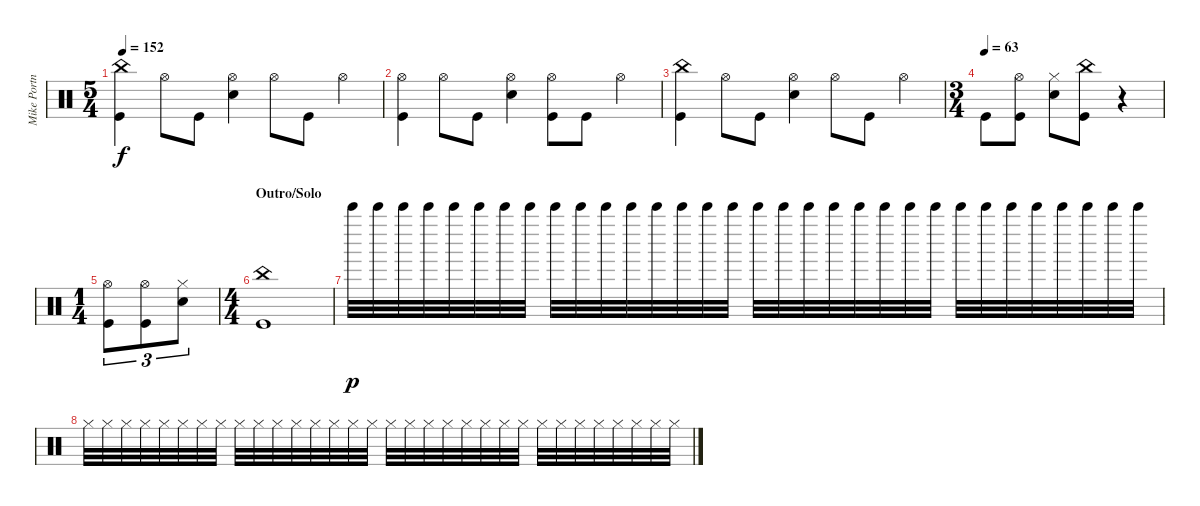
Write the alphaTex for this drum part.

\track ("Mike Portnoy (Drums)" "Mike Portn") {instrument percussion}
\staff {score}
\articulation defaults
\ts (5 4)
\tempo 152
\clef neutral
\ks c
("Kick (hit)" "China (hit)").4{dy f} "Hi-Hat (open)".8 "Kick (hit)".8 ("Snare (hit) 2" "Hi-Hat (open)").4 "Hi-Hat (open)".8 "Kick (hit)".8 "Hi-Hat (open)".4 |
("Kick (hit)" "Hi-Hat (open)").4 "Hi-Hat (open)".8 "Kick (hit)".8 ("Snare (hit) 2" "Hi-Hat (open)").4 ("Kick (hit)" "Hi-Hat (open)").8 "Kick (hit)".8 "Hi-Hat (open)".4 |
("Kick (hit)" "China (hit)").4 "Hi-Hat (open)".8 "Kick (hit)".8 ("Snare (hit) 2" "Hi-Hat (open)").4 "Hi-Hat (open)".8 "Kick (hit)".8 "Hi-Hat (open)".4 |
\ts (3 4)
\tempo (63)
"Kick (hit)".8 ("Kick (hit)" "Hi-Hat (open)").8 ("Snare (hit) 2" "Hi-Hat (closed)").8 ("Kick (hit)" "China (hit)").8 r.4 |
\ts (1 4)
("Kick (hit)" "Hi-Hat (open)").8{tu (3 2)} ("Kick (hit)" "Hi-Hat (open)").8{tu (3 2)} ("Snare (hit) 2" "Hi-Hat (closed)").8{tu (3 2)} |
\ts (4 4)
\section ("" "Outro/Solo")
("Kick (hit)" "China (hit)").1 |
"Bell Tree (hit)".32{dy p} "Bell Tree (hit)".32 "Bell Tree (hit)".32 "Bell Tree (hit)".32 "Bell Tree (hit)".32 "Bell Tree (hit)".32 "Bell Tree (hit)".32 "Bell Tree (hit)".32 "Bell Tree (hit)".32 "Bell Tree (hit)".32 "Bell Tree (hit)".32 "Bell Tree (hit)".32 "Bell Tree (hit)".32 "Bell Tree (hit)".32 "Bell Tree (hit)".32 "Bell Tree (hit)".32 "Bell Tree (hit)".32 "Bell Tree (hit)".32 "Bell Tree (hit)".32 "Bell Tree (hit)".32 "Bell Tree (hit)".32 "Bell Tree (hit)".32 "Bell Tree (hit)".32 "Bell Tree (hit)".32 "Bell Tree (hit)".32 "Bell Tree (hit)".32 "Bell Tree (hit)".32 "Bell Tree (hit)".32 "Bell Tree (hit)".32 "Bell Tree (hit)".32 "Bell Tree (hit)".32 "Bell Tree (hit)".32 |
"Hi-Hat (closed)".32 "Hi-Hat (closed)".32 "Hi-Hat (closed)".32 "Hi-Hat (closed)".32 "Hi-Hat (closed)".32 "Hi-Hat (closed)".32 "Hi-Hat (closed)".32 "Hi-Hat (closed)".32 "Hi-Hat (closed)".32 "Hi-Hat (closed)".32 "Hi-Hat (closed)".32 "Hi-Hat (closed)".32 "Hi-Hat (closed)".32 "Hi-Hat (closed)".32 "Hi-Hat (closed)".32 "Hi-Hat (closed)".32 "Hi-Hat (closed)".32 "Hi-Hat (closed)".32 "Hi-Hat (closed)".32 "Hi-Hat (closed)".32 "Hi-Hat (closed)".32 "Hi-Hat (closed)".32 "Hi-Hat (closed)".32 "Hi-Hat (closed)".32 "Hi-Hat (closed)".32 "Hi-Hat (closed)".32 "Hi-Hat (closed)".32 "Hi-Hat (closed)".32 "Hi-Hat (closed)".32 "Hi-Hat (closed)".32 "Hi-Hat (closed)".32 "Hi-Hat (closed)".32
